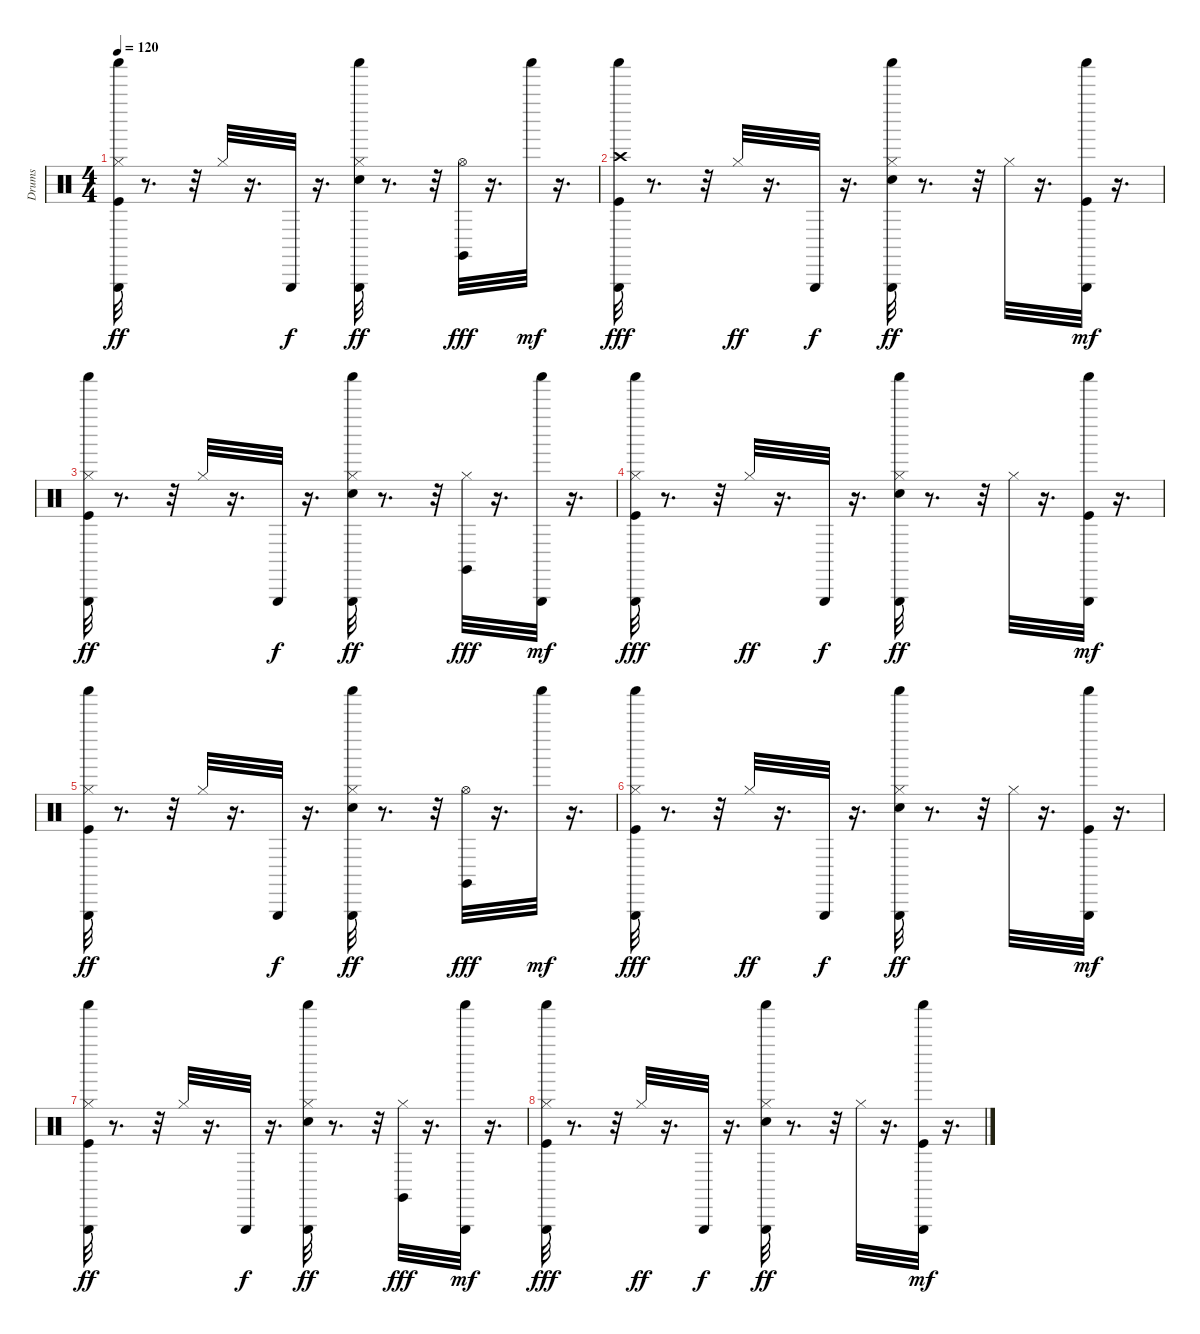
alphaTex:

\track ("Drums" "Drums") {instrument percussion}
\staff {score}
\articulation defaults
\ts (4 4)
\tempo 120
\clef neutral
\ks c
("Shaker (hit)" "Triangle (hit)" "Kick (hit)" "Hi-Hat (closed)").32{dy ff} r.8{d} r.32 "Hi-Hat (closed)".32 r.16{d} "Triangle (hit)".32{dy f} r.16{d} ("Shaker (hit)" "Triangle (hit)" "Electric Snare (hit)" "Hi-Hat (closed)").32{dy ff} r.8{d} r.32 ("Hi-Hat (open)" "Claves (hit)").32{dy fff} r.16{d} "Shaker (hit)".32{dy mf} r.16{d} |
("Crash high (hit)" "Shaker (hit)" "Triangle (hit)" "Kick (hit)").32{dy fff} r.8{d} r.32 "Hi-Hat (closed)".32{dy ff} r.16{d} "Triangle (hit)".32{dy f} r.16{d} ("Shaker (hit)" "Triangle (hit)" "Electric Snare (hit)" "Hi-Hat (closed)").32{dy ff} r.8{d} r.32 "Hi-Hat (closed)".32 r.16{d} ("Kick (hit)" "Shaker (hit)" "Triangle (hit)").32{dy mf} r.16{d} |
("Shaker (hit)" "Triangle (hit)" "Kick (hit)" "Hi-Hat (closed)").32{dy ff} r.8{d} r.32 "Hi-Hat (closed)".32 r.16{d} "Triangle (hit)".32{dy f} r.16{d} ("Shaker (hit)" "Triangle (hit)" "Electric Snare (hit)" "Hi-Hat (closed)").32{dy ff} r.8{d} r.32 ("Hi-Hat (closed)" "Claves (hit)").32{dy fff} r.16{d} ("Shaker (hit)" "Triangle (hit)").32{dy mf} r.16{d} |
("Shaker (hit)" "Triangle (hit)" "Hi-Hat (closed)" "Kick (hit)").32{dy fff} r.8{d} r.32 "Hi-Hat (closed)".32{dy ff} r.16{d} "Triangle (hit)".32{dy f} r.16{d} ("Shaker (hit)" "Triangle (hit)" "Electric Snare (hit)" "Hi-Hat (closed)").32{dy ff} r.8{d} r.32 "Hi-Hat (closed)".32 r.16{d} ("Kick (hit)" "Shaker (hit)" "Triangle (hit)").32{dy mf} r.16{d} |
("Shaker (hit)" "Triangle (hit)" "Kick (hit)" "Hi-Hat (closed)").32{dy ff} r.8{d} r.32 "Hi-Hat (closed)".32 r.16{d} "Triangle (hit)".32{dy f} r.16{d} ("Shaker (hit)" "Triangle (hit)" "Electric Snare (hit)" "Hi-Hat (closed)").32{dy ff} r.8{d} r.32 ("Hi-Hat (open)" "Claves (hit)").32{dy fff} r.16{d} "Shaker (hit)".32{dy mf} r.16{d} |
("Shaker (hit)" "Triangle (hit)" "Hi-Hat (closed)" "Kick (hit)").32{dy fff} r.8{d} r.32 "Hi-Hat (closed)".32{dy ff} r.16{d} "Triangle (hit)".32{dy f} r.16{d} ("Shaker (hit)" "Triangle (hit)" "Electric Snare (hit)" "Hi-Hat (closed)").32{dy ff} r.8{d} r.32 "Hi-Hat (closed)".32 r.16{d} ("Kick (hit)" "Shaker (hit)" "Triangle (hit)").32{dy mf} r.16{d} |
("Shaker (hit)" "Triangle (hit)" "Kick (hit)" "Hi-Hat (closed)").32{dy ff} r.8{d} r.32 "Hi-Hat (closed)".32 r.16{d} "Triangle (hit)".32{dy f} r.16{d} ("Shaker (hit)" "Triangle (hit)" "Electric Snare (hit)" "Hi-Hat (closed)").32{dy ff} r.8{d} r.32 ("Hi-Hat (closed)" "Claves (hit)").32{dy fff} r.16{d} ("Shaker (hit)" "Triangle (hit)").32{dy mf} r.16{d} |
("Shaker (hit)" "Triangle (hit)" "Hi-Hat (closed)" "Kick (hit)").32{dy fff} r.8{d} r.32 "Hi-Hat (closed)".32{dy ff} r.16{d} "Triangle (hit)".32{dy f} r.16{d} ("Shaker (hit)" "Triangle (hit)" "Electric Snare (hit)" "Hi-Hat (closed)").32{dy ff} r.8{d} r.32 "Hi-Hat (closed)".32 r.16{d} ("Kick (hit)" "Shaker (hit)" "Triangle (hit)").32{dy mf} r.16{d}
